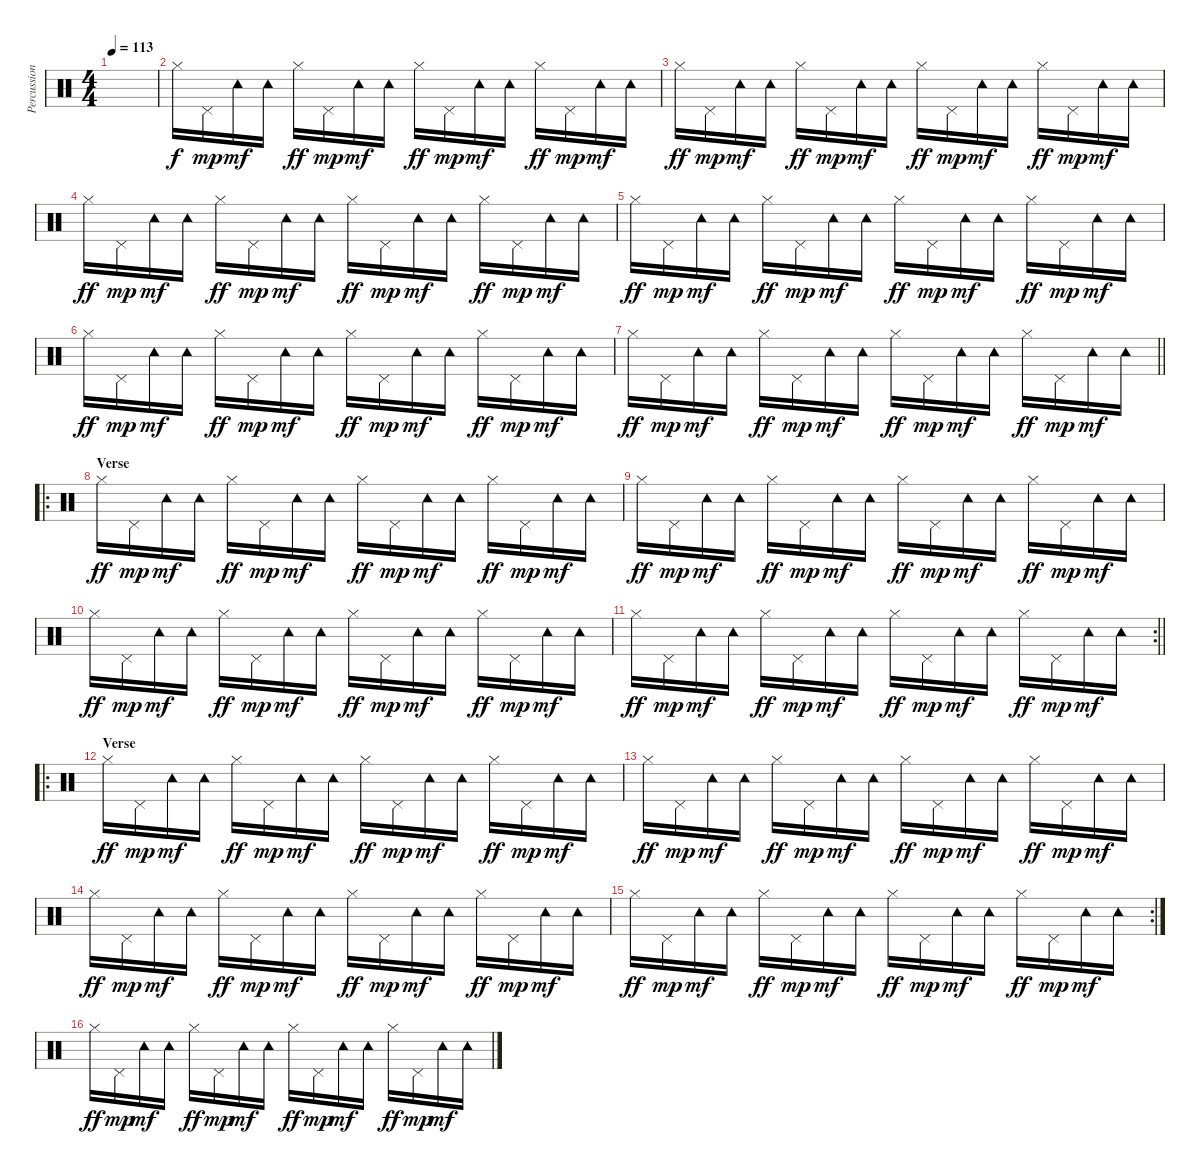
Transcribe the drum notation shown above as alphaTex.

\track ("Percussion" "Percussion") {instrument percussion}
\staff {score}
\articulation defaults
\ts (4 4)
\tempo 113
\clef neutral
\ks c
|
"Hi-Hat (closed)".16 "Pedal Hi-Hat (hit)".16{dy mp} "Tambourine (hit)".16{dy mf} "Tambourine (hit)".16 "Hi-Hat (closed)".16{dy ff} "Pedal Hi-Hat (hit)".16{dy mp} "Tambourine (hit)".16{dy mf} "Tambourine (hit)".16 "Hi-Hat (closed)".16{dy ff} "Pedal Hi-Hat (hit)".16{dy mp} "Tambourine (hit)".16{dy mf} "Tambourine (hit)".16 "Hi-Hat (closed)".16{dy ff} "Pedal Hi-Hat (hit)".16{dy mp} "Tambourine (hit)".16{dy mf} "Tambourine (hit)".16 |
"Hi-Hat (closed)".16{dy ff} "Pedal Hi-Hat (hit)".16{dy mp} "Tambourine (hit)".16{dy mf} "Tambourine (hit)".16 "Hi-Hat (closed)".16{dy ff} "Pedal Hi-Hat (hit)".16{dy mp} "Tambourine (hit)".16{dy mf} "Tambourine (hit)".16 "Hi-Hat (closed)".16{dy ff} "Pedal Hi-Hat (hit)".16{dy mp} "Tambourine (hit)".16{dy mf} "Tambourine (hit)".16 "Hi-Hat (closed)".16{dy ff} "Pedal Hi-Hat (hit)".16{dy mp} "Tambourine (hit)".16{dy mf} "Tambourine (hit)".16 |
"Hi-Hat (closed)".16{dy ff} "Pedal Hi-Hat (hit)".16{dy mp} "Tambourine (hit)".16{dy mf} "Tambourine (hit)".16 "Hi-Hat (closed)".16{dy ff} "Pedal Hi-Hat (hit)".16{dy mp} "Tambourine (hit)".16{dy mf} "Tambourine (hit)".16 "Hi-Hat (closed)".16{dy ff} "Pedal Hi-Hat (hit)".16{dy mp} "Tambourine (hit)".16{dy mf} "Tambourine (hit)".16 "Hi-Hat (closed)".16{dy ff} "Pedal Hi-Hat (hit)".16{dy mp} "Tambourine (hit)".16{dy mf} "Tambourine (hit)".16 |
"Hi-Hat (closed)".16{dy ff} "Pedal Hi-Hat (hit)".16{dy mp} "Tambourine (hit)".16{dy mf} "Tambourine (hit)".16 "Hi-Hat (closed)".16{dy ff} "Pedal Hi-Hat (hit)".16{dy mp} "Tambourine (hit)".16{dy mf} "Tambourine (hit)".16 "Hi-Hat (closed)".16{dy ff} "Pedal Hi-Hat (hit)".16{dy mp} "Tambourine (hit)".16{dy mf} "Tambourine (hit)".16 "Hi-Hat (closed)".16{dy ff} "Pedal Hi-Hat (hit)".16{dy mp} "Tambourine (hit)".16{dy mf} "Tambourine (hit)".16 |
"Hi-Hat (closed)".16{dy ff} "Pedal Hi-Hat (hit)".16{dy mp} "Tambourine (hit)".16{dy mf} "Tambourine (hit)".16 "Hi-Hat (closed)".16{dy ff} "Pedal Hi-Hat (hit)".16{dy mp} "Tambourine (hit)".16{dy mf} "Tambourine (hit)".16 "Hi-Hat (closed)".16{dy ff} "Pedal Hi-Hat (hit)".16{dy mp} "Tambourine (hit)".16{dy mf} "Tambourine (hit)".16 "Hi-Hat (closed)".16{dy ff} "Pedal Hi-Hat (hit)".16{dy mp} "Tambourine (hit)".16{dy mf} "Tambourine (hit)".16 |
\barLineRight lightlight "Hi-Hat (closed)".16{dy ff} "Pedal Hi-Hat (hit)".16{dy mp} "Tambourine (hit)".16{dy mf} "Tambourine (hit)".16 "Hi-Hat (closed)".16{dy ff} "Pedal Hi-Hat (hit)".16{dy mp} "Tambourine (hit)".16{dy mf} "Tambourine (hit)".16 "Hi-Hat (closed)".16{dy ff} "Pedal Hi-Hat (hit)".16{dy mp} "Tambourine (hit)".16{dy mf} "Tambourine (hit)".16 "Hi-Hat (closed)".16{dy ff} "Pedal Hi-Hat (hit)".16{dy mp} "Tambourine (hit)".16{dy mf} "Tambourine (hit)".16
|
\ro
\section ("" "Verse")
"Hi-Hat (closed)".16{dy ff} "Pedal Hi-Hat (hit)".16{dy mp} "Tambourine (hit)".16{dy mf} "Tambourine (hit)".16 "Hi-Hat (closed)".16{dy ff} "Pedal Hi-Hat (hit)".16{dy mp} "Tambourine (hit)".16{dy mf} "Tambourine (hit)".16 "Hi-Hat (closed)".16{dy ff} "Pedal Hi-Hat (hit)".16{dy mp} "Tambourine (hit)".16{dy mf} "Tambourine (hit)".16 "Hi-Hat (closed)".16{dy ff} "Pedal Hi-Hat (hit)".16{dy mp} "Tambourine (hit)".16{dy mf} "Tambourine (hit)".16 |
"Hi-Hat (closed)".16{dy ff} "Pedal Hi-Hat (hit)".16{dy mp} "Tambourine (hit)".16{dy mf} "Tambourine (hit)".16 "Hi-Hat (closed)".16{dy ff} "Pedal Hi-Hat (hit)".16{dy mp} "Tambourine (hit)".16{dy mf} "Tambourine (hit)".16 "Hi-Hat (closed)".16{dy ff} "Pedal Hi-Hat (hit)".16{dy mp} "Tambourine (hit)".16{dy mf} "Tambourine (hit)".16 "Hi-Hat (closed)".16{dy ff} "Pedal Hi-Hat (hit)".16{dy mp} "Tambourine (hit)".16{dy mf} "Tambourine (hit)".16 |
"Hi-Hat (closed)".16{dy ff} "Pedal Hi-Hat (hit)".16{dy mp} "Tambourine (hit)".16{dy mf} "Tambourine (hit)".16 "Hi-Hat (closed)".16{dy ff} "Pedal Hi-Hat (hit)".16{dy mp} "Tambourine (hit)".16{dy mf} "Tambourine (hit)".16 "Hi-Hat (closed)".16{dy ff} "Pedal Hi-Hat (hit)".16{dy mp} "Tambourine (hit)".16{dy mf} "Tambourine (hit)".16 "Hi-Hat (closed)".16{dy ff} "Pedal Hi-Hat (hit)".16{dy mp} "Tambourine (hit)".16{dy mf} "Tambourine (hit)".16 |
\rc 2
\barLineRight lightlight "Hi-Hat (closed)".16{dy ff} "Pedal Hi-Hat (hit)".16{dy mp} "Tambourine (hit)".16{dy mf} "Tambourine (hit)".16 "Hi-Hat (closed)".16{dy ff} "Pedal Hi-Hat (hit)".16{dy mp} "Tambourine (hit)".16{dy mf} "Tambourine (hit)".16 "Hi-Hat (closed)".16{dy ff} "Pedal Hi-Hat (hit)".16{dy mp} "Tambourine (hit)".16{dy mf} "Tambourine (hit)".16 "Hi-Hat (closed)".16{dy ff} "Pedal Hi-Hat (hit)".16{dy mp} "Tambourine (hit)".16{dy mf} "Tambourine (hit)".16
|
\ro
\section ("" "Verse")
"Hi-Hat (closed)".16{dy ff} "Pedal Hi-Hat (hit)".16{dy mp} "Tambourine (hit)".16{dy mf} "Tambourine (hit)".16 "Hi-Hat (closed)".16{dy ff} "Pedal Hi-Hat (hit)".16{dy mp} "Tambourine (hit)".16{dy mf} "Tambourine (hit)".16 "Hi-Hat (closed)".16{dy ff} "Pedal Hi-Hat (hit)".16{dy mp} "Tambourine (hit)".16{dy mf} "Tambourine (hit)".16 "Hi-Hat (closed)".16{dy ff} "Pedal Hi-Hat (hit)".16{dy mp} "Tambourine (hit)".16{dy mf} "Tambourine (hit)".16 |
"Hi-Hat (closed)".16{dy ff} "Pedal Hi-Hat (hit)".16{dy mp} "Tambourine (hit)".16{dy mf} "Tambourine (hit)".16 "Hi-Hat (closed)".16{dy ff} "Pedal Hi-Hat (hit)".16{dy mp} "Tambourine (hit)".16{dy mf} "Tambourine (hit)".16 "Hi-Hat (closed)".16{dy ff} "Pedal Hi-Hat (hit)".16{dy mp} "Tambourine (hit)".16{dy mf} "Tambourine (hit)".16 "Hi-Hat (closed)".16{dy ff} "Pedal Hi-Hat (hit)".16{dy mp} "Tambourine (hit)".16{dy mf} "Tambourine (hit)".16 |
"Hi-Hat (closed)".16{dy ff} "Pedal Hi-Hat (hit)".16{dy mp} "Tambourine (hit)".16{dy mf} "Tambourine (hit)".16 "Hi-Hat (closed)".16{dy ff} "Pedal Hi-Hat (hit)".16{dy mp} "Tambourine (hit)".16{dy mf} "Tambourine (hit)".16 "Hi-Hat (closed)".16{dy ff} "Pedal Hi-Hat (hit)".16{dy mp} "Tambourine (hit)".16{dy mf} "Tambourine (hit)".16 "Hi-Hat (closed)".16{dy ff} "Pedal Hi-Hat (hit)".16{dy mp} "Tambourine (hit)".16{dy mf} "Tambourine (hit)".16 |
\rc 2 "Hi-Hat (closed)".16{dy ff} "Pedal Hi-Hat (hit)".16{dy mp} "Tambourine (hit)".16{dy mf} "Tambourine (hit)".16 "Hi-Hat (closed)".16{dy ff} "Pedal Hi-Hat (hit)".16{dy mp} "Tambourine (hit)".16{dy mf} "Tambourine (hit)".16 "Hi-Hat (closed)".16{dy ff} "Pedal Hi-Hat (hit)".16{dy mp} "Tambourine (hit)".16{dy mf} "Tambourine (hit)".16 "Hi-Hat (closed)".16{dy ff} "Pedal Hi-Hat (hit)".16{dy mp} "Tambourine (hit)".16{dy mf} "Tambourine (hit)".16
|
"Hi-Hat (closed)".16{dy ff} "Pedal Hi-Hat (hit)".16{dy mp} "Tambourine (hit)".16{dy mf} "Tambourine (hit)".16 "Hi-Hat (closed)".16{dy ff} "Pedal Hi-Hat (hit)".16{dy mp} "Tambourine (hit)".16{dy mf} "Tambourine (hit)".16 "Hi-Hat (closed)".16{dy ff} "Pedal Hi-Hat (hit)".16{dy mp} "Tambourine (hit)".16{dy mf} "Tambourine (hit)".16 "Hi-Hat (closed)".16{dy ff} "Pedal Hi-Hat (hit)".16{dy mp} "Tambourine (hit)".16{dy mf} "Tambourine (hit)".16
